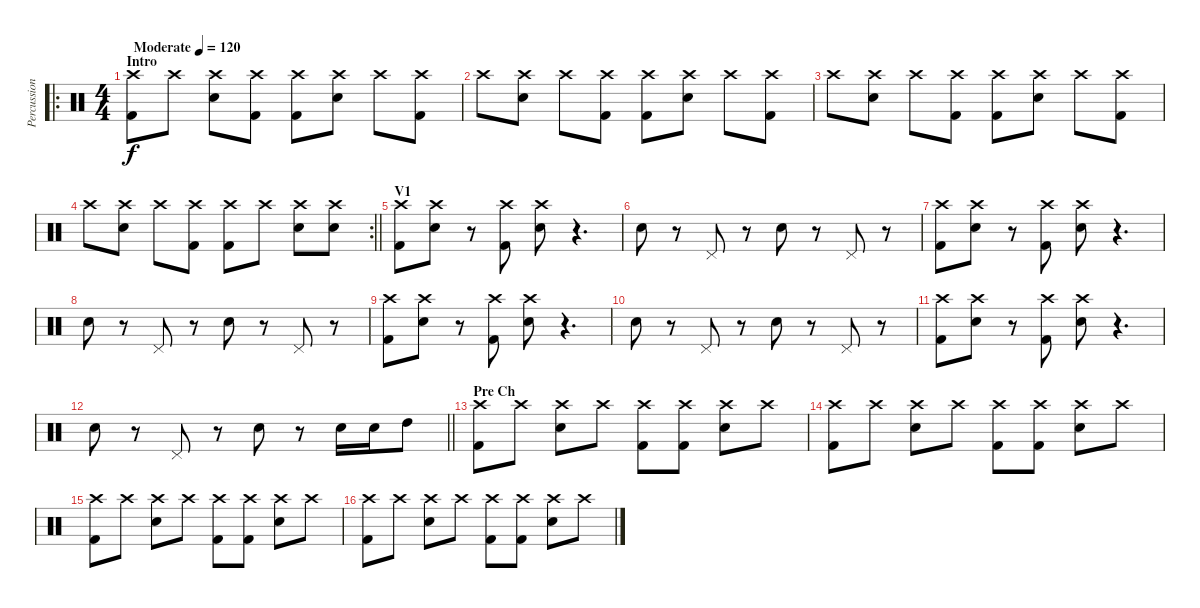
\track ("Percussion" "Percussion") {instrument percussion}
\staff {score}
\articulation defaults
\ro
\ts (4 4)
\section ("" "Intro")
\tempo (120 "Moderate")
\clef neutral
\ks c
("Crash high (hit)" "Kick (hit) 2").8{dy f} "Crash high (hit)".8 ("Crash high (hit)" "Snare (hit) 2").8 ("Crash high (hit)" "Kick (hit) 2").8 ("Crash high (hit)" "Kick (hit) 2").8 ("Crash high (hit)" "Snare (hit) 2").8 "Crash high (hit)".8 ("Crash high (hit)" "Kick (hit) 2").8 |
"Crash high (hit)".8 ("Crash high (hit)" "Snare (hit) 2").8 "Crash high (hit)".8 ("Crash high (hit)" "Kick (hit) 2").8 ("Crash high (hit)" "Kick (hit) 2").8 ("Crash high (hit)" "Snare (hit) 2").8 "Crash high (hit)".8 ("Crash high (hit)" "Kick (hit) 2").8 |
"Crash high (hit)".8 ("Crash high (hit)" "Snare (hit) 2").8 "Crash high (hit)".8 ("Crash high (hit)" "Kick (hit) 2").8 ("Crash high (hit)" "Kick (hit) 2").8 ("Crash high (hit)" "Snare (hit) 2").8 "Crash high (hit)".8 ("Crash high (hit)" "Kick (hit) 2").8 |
\rc 2
\barLineRight lightlight "Crash high (hit)".8
("Crash high (hit)" "Snare (hit) 2").8 "Crash high (hit)".8 ("Crash high (hit)" "Kick (hit) 2").8 ("Crash high (hit)" "Kick (hit) 2").8 "Crash high (hit)".8 ("Crash high (hit)" "Snare (hit) 2").8 ("Crash high (hit)" "Snare (hit) 2").8 |
\section ("" "V1")
("Crash high (hit)" "Kick (hit) 2").8 ("Crash high (hit)" "Snare (hit) 2").8 r.8 ("Crash high (hit)" "Kick (hit) 2").8 ("Crash high (hit)" "Snare (hit) 2").8 r.4{d} |
"Snare (hit) 2".8 r.8 "Pedal Hi-Hat (hit)".8 r.8 "Snare (hit) 2".8 r.8 "Pedal Hi-Hat (hit)".8 r.8 |
("Crash high (hit)" "Kick (hit) 2").8 ("Crash high (hit)" "Snare (hit) 2").8 r.8 ("Crash high (hit)" "Kick (hit) 2").8 ("Crash high (hit)" "Snare (hit) 2").8 r.4{d} |
"Snare (hit) 2".8 r.8 "Pedal Hi-Hat (hit)".8 r.8 "Snare (hit) 2".8 r.8 "Pedal Hi-Hat (hit)".8 r.8 |
("Crash high (hit)" "Kick (hit) 2").8 ("Crash high (hit)" "Snare (hit) 2").8 r.8 ("Crash high (hit)" "Kick (hit) 2").8 ("Crash high (hit)" "Snare (hit) 2").8 r.4{d} |
"Snare (hit) 2".8 r.8 "Pedal Hi-Hat (hit)".8 r.8 "Snare (hit) 2".8 r.8 "Pedal Hi-Hat (hit)".8 r.8 |
("Crash high (hit)" "Kick (hit) 2").8 ("Crash high (hit)" "Snare (hit) 2").8 r.8 ("Crash high (hit)" "Kick (hit) 2").8 ("Crash high (hit)" "Snare (hit) 2").8 r.4{d} |
\barLineRight lightlight "Snare (hit) 2".8
r.8 "Pedal Hi-Hat (hit)".8 r.8 "Snare (hit) 2".8 r.8 "Snare (hit) 2".16 "Snare (hit) 2".16 "High Tom (hit)".8 |
\section ("" "Pre Ch")
("Crash high (hit)" "Kick (hit) 2").8 "Crash high (hit)".8 ("Crash high (hit)" "Snare (hit) 2").8 "Crash high (hit)".8 ("Crash high (hit)" "Kick (hit) 2").8 ("Crash high (hit)" "Kick (hit) 2").8 ("Crash high (hit)" "Snare (hit) 2").8 "Crash high (hit)".8 |
("Crash high (hit)" "Kick (hit) 2").8 "Crash high (hit)".8 ("Crash high (hit)" "Snare (hit) 2").8 "Crash high (hit)".8 ("Crash high (hit)" "Kick (hit) 2").8 ("Crash high (hit)" "Kick (hit) 2").8 ("Crash high (hit)" "Snare (hit) 2").8 "Crash high (hit)".8 |
("Crash high (hit)" "Kick (hit) 2").8 "Crash high (hit)".8 ("Crash high (hit)" "Snare (hit) 2").8 "Crash high (hit)".8 ("Crash high (hit)" "Kick (hit) 2").8 ("Crash high (hit)" "Kick (hit) 2").8 ("Crash high (hit)" "Snare (hit) 2").8 "Crash high (hit)".8 |
("Crash high (hit)" "Kick (hit) 2").8 "Crash high (hit)".8 ("Crash high (hit)" "Snare (hit) 2").8 "Crash high (hit)".8 ("Crash high (hit)" "Kick (hit) 2").8 ("Crash high (hit)" "Kick (hit) 2").8 ("Crash high (hit)" "Snare (hit) 2").8 "Crash high (hit)".8
